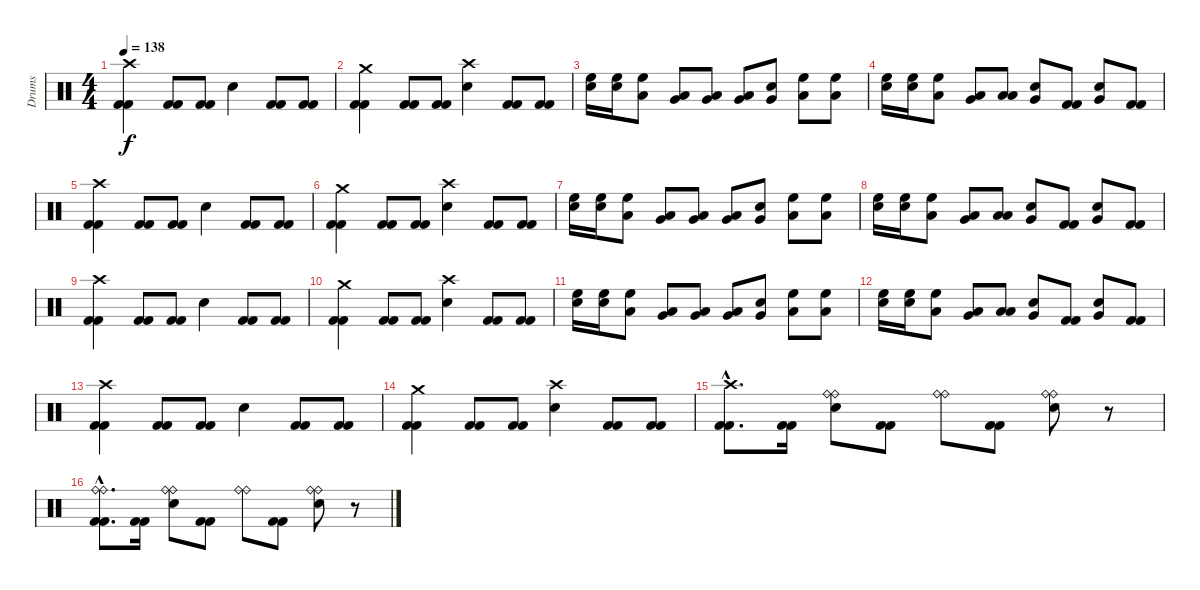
\track ("Drums" "Drums") {instrument percussion}
\staff {score}
\articulation defaults
\ts (4 4)
\tempo 138
\clef neutral
\ks c
("Crash high (hit)" "Kick (hit) 2" "Kick (hit) 2").4{dy f} ("Kick (hit) 2" "Kick (hit) 2").8 ("Kick (hit) 2" "Kick (hit) 2").8 "Electric Snare (hit)".4 ("Kick (hit) 2" "Kick (hit) 2").8 ("Kick (hit) 2" "Kick (hit) 2").8 |
("Crash medium (hit)" "Kick (hit) 2" "Kick (hit) 2").4 ("Kick (hit) 2" "Kick (hit) 2").8 ("Kick (hit) 2" "Kick (hit) 2").8 ("Crash high (hit)" "Electric Snare (hit)").4 ("Kick (hit) 2" "Kick (hit) 2").8 ("Kick (hit) 2" "Kick (hit) 2").8 |
("Electric Snare (hit)" "High Floor Tom (hit)").16 ("Electric Snare (hit)" "High Floor Tom (hit)").16 ("Low Tom (hit)" "High Floor Tom (hit)").8 ("Very Low Tom (hit)" "Low Tom (hit)").8 ("Low Tom (hit)" "Very Low Tom (hit)").8 ("Low Tom (hit)" "Very Low Tom (hit)").8 ("Electric Snare (hit)" "Very Low Tom (hit)").8 ("High Floor Tom (hit)" "Low Tom (hit)").8 ("Low Tom (hit)" "High Floor Tom (hit)").8 |
("Electric Snare (hit)" "High Floor Tom (hit)").16 ("Electric Snare (hit)" "High Floor Tom (hit)").16 ("Low Tom (hit)" "High Floor Tom (hit)").8 ("Low Tom (hit)" "Very Low Tom (hit)").8 ("Low Tom (hit)" "Low Floor Tom (hit)").8 ("Very Low Tom (hit)" "Electric Snare (hit)").8 ("Kick (hit) 2" "Kick (hit) 2").8 ("Very Low Tom (hit)" "Electric Snare (hit)").8 ("Kick (hit) 2" "Kick (hit) 2").8 |
("Crash high (hit)" "Kick (hit) 2" "Kick (hit) 2").4 ("Kick (hit) 2" "Kick (hit) 2").8 ("Kick (hit) 2" "Kick (hit) 2").8 "Electric Snare (hit)".4 ("Kick (hit) 2" "Kick (hit) 2").8 ("Kick (hit) 2" "Kick (hit) 2").8 |
("Crash medium (hit)" "Kick (hit) 2" "Kick (hit) 2").4 ("Kick (hit) 2" "Kick (hit) 2").8 ("Kick (hit) 2" "Kick (hit) 2").8 ("Crash high (hit)" "Electric Snare (hit)").4 ("Kick (hit) 2" "Kick (hit) 2").8 ("Kick (hit) 2" "Kick (hit) 2").8 |
("Electric Snare (hit)" "High Floor Tom (hit)").16 ("Electric Snare (hit)" "High Floor Tom (hit)").16 ("Low Tom (hit)" "High Floor Tom (hit)").8 ("Very Low Tom (hit)" "Low Tom (hit)").8 ("Low Tom (hit)" "Very Low Tom (hit)").8 ("Low Tom (hit)" "Very Low Tom (hit)").8 ("Electric Snare (hit)" "Very Low Tom (hit)").8 ("High Floor Tom (hit)" "Low Tom (hit)").8 ("Low Tom (hit)" "High Floor Tom (hit)").8 |
("Electric Snare (hit)" "High Floor Tom (hit)").16 ("Electric Snare (hit)" "High Floor Tom (hit)").16 ("Low Tom (hit)" "High Floor Tom (hit)").8 ("Low Tom (hit)" "Very Low Tom (hit)").8 ("Low Tom (hit)" "Low Floor Tom (hit)").8 ("Very Low Tom (hit)" "Electric Snare (hit)").8 ("Kick (hit) 2" "Kick (hit) 2").8 ("Very Low Tom (hit)" "Electric Snare (hit)").8 ("Kick (hit) 2" "Kick (hit) 2").8 |
("Crash high (hit)" "Kick (hit) 2" "Kick (hit) 2").4 ("Kick (hit) 2" "Kick (hit) 2").8 ("Kick (hit) 2" "Kick (hit) 2").8 "Electric Snare (hit)".4 ("Kick (hit) 2" "Kick (hit) 2").8 ("Kick (hit) 2" "Kick (hit) 2").8 |
("Crash medium (hit)" "Kick (hit) 2" "Kick (hit) 2").4 ("Kick (hit) 2" "Kick (hit) 2").8 ("Kick (hit) 2" "Kick (hit) 2").8 ("Crash high (hit)" "Electric Snare (hit)").4 ("Kick (hit) 2" "Kick (hit) 2").8 ("Kick (hit) 2" "Kick (hit) 2").8 |
("Electric Snare (hit)" "High Floor Tom (hit)").16 ("Electric Snare (hit)" "High Floor Tom (hit)").16 ("Low Tom (hit)" "High Floor Tom (hit)").8 ("Very Low Tom (hit)" "Low Tom (hit)").8 ("Low Tom (hit)" "Very Low Tom (hit)").8 ("Low Tom (hit)" "Very Low Tom (hit)").8 ("Electric Snare (hit)" "Very Low Tom (hit)").8 ("High Floor Tom (hit)" "Low Tom (hit)").8 ("Low Tom (hit)" "High Floor Tom (hit)").8 |
("Electric Snare (hit)" "High Floor Tom (hit)").16 ("Electric Snare (hit)" "High Floor Tom (hit)").16 ("Low Tom (hit)" "High Floor Tom (hit)").8 ("Low Tom (hit)" "Very Low Tom (hit)").8 ("Low Tom (hit)" "Low Floor Tom (hit)").8 ("Very Low Tom (hit)" "Electric Snare (hit)").8 ("Kick (hit) 2" "Kick (hit) 2").8 ("Very Low Tom (hit)" "Electric Snare (hit)").8 ("Kick (hit) 2" "Kick (hit) 2").8 |
("Crash high (hit)" "Kick (hit) 2" "Kick (hit) 2").4 ("Kick (hit) 2" "Kick (hit) 2").8 ("Kick (hit) 2" "Kick (hit) 2").8 "Electric Snare (hit)".4 ("Kick (hit) 2" "Kick (hit) 2").8 ("Kick (hit) 2" "Kick (hit) 2").8 |
("Crash medium (hit)" "Kick (hit) 2" "Kick (hit) 2").4 ("Kick (hit) 2" "Kick (hit) 2").8 ("Kick (hit) 2" "Kick (hit) 2").8 ("Crash high (hit)" "Electric Snare (hit)").4 ("Kick (hit) 2" "Kick (hit) 2").8 ("Kick (hit) 2" "Kick (hit) 2").8 |
("Crash high (hit)"{hac} "Kick (hit) 2"{hac} "Kick (hit) 2"{hac}).8{d} ("Kick (hit) 2" "Kick (hit) 2").16 ("Ride (bell)" "Ride (bell)" "Electric Snare (hit)").8 ("Kick (hit) 2" "Kick (hit) 2").8 ("Ride (bell)" "Ride (bell)").8 ("Kick (hit) 2" "Kick (hit) 2").8 ("Ride (bell)" "Ride (bell)" "Electric Snare (hit)").8 r.8 |
("Ride (bell)"{hac} "Ride (bell)"{hac} "Kick (hit) 2"{hac} "Kick (hit) 2"{hac}).8{d} ("Kick (hit) 2" "Kick (hit) 2").16 ("Ride (bell)" "Ride (bell)" "Electric Snare (hit)").8 ("Kick (hit) 2" "Kick (hit) 2").8 ("Ride (bell)" "Ride (bell)").8 ("Kick (hit) 2" "Kick (hit) 2").8 ("Ride (bell)" "Ride (bell)" "Electric Snare (hit)").8 r.8
